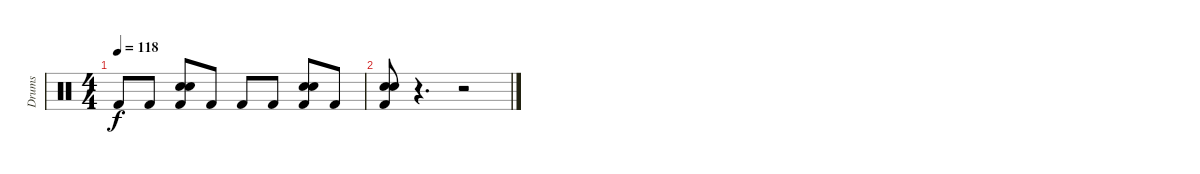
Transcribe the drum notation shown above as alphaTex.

\track ("Drums" "Drums") {instrument percussion}
\staff {score}
\articulation defaults
\ts (4 4)
\tempo 118
\clef neutral
\ks c "Kick (hit) 2".8{dy f} "Kick (hit) 2".8
("Snare (hit) 2" "Electric Snare (hit)" "Kick (hit) 2").8 "Kick (hit) 2".8 "Kick (hit) 2".8 "Kick (hit) 2".8 ("Snare (hit) 2" "Electric Snare (hit)" "Kick (hit) 2").8 "Kick (hit) 2".8 |
("Snare (hit) 2" "Electric Snare (hit)" "Kick (hit) 2").8 r.4{d} r.2
